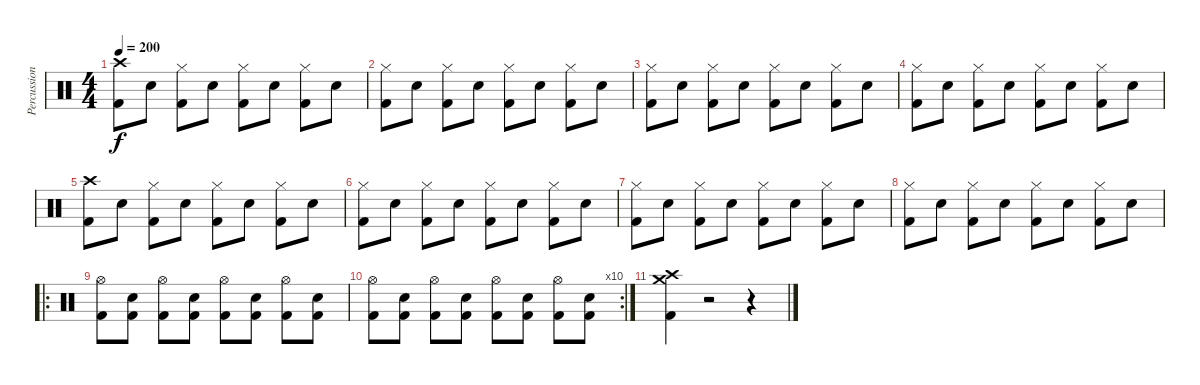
\track ("Percussions" "Percussion") {instrument percussion}
\staff {score}
\articulation defaults
\ts (4 4)
\tempo 200
\clef neutral
\ks c
("Kick (hit) 2" "Crash high (hit)").8{dy f} "Snare (hit) 2".8 ("Kick (hit) 2" "Hi-Hat (closed)").8 "Snare (hit) 2".8 ("Kick (hit) 2" "Hi-Hat (closed)").8 "Snare (hit) 2".8 ("Kick (hit) 2" "Hi-Hat (closed)").8 "Snare (hit) 2".8 |
("Kick (hit) 2" "Hi-Hat (closed)").8 "Snare (hit) 2".8 ("Kick (hit) 2" "Hi-Hat (closed)").8 "Snare (hit) 2".8 ("Kick (hit) 2" "Hi-Hat (closed)").8 "Snare (hit) 2".8 ("Kick (hit) 2" "Hi-Hat (closed)").8 "Snare (hit) 2".8 |
("Kick (hit) 2" "Hi-Hat (closed)").8 "Snare (hit) 2".8 ("Kick (hit) 2" "Hi-Hat (closed)").8 "Snare (hit) 2".8 ("Kick (hit) 2" "Hi-Hat (closed)").8 "Snare (hit) 2".8 ("Kick (hit) 2" "Hi-Hat (closed)").8 "Snare (hit) 2".8 |
("Kick (hit) 2" "Hi-Hat (closed)").8 "Snare (hit) 2".8 ("Kick (hit) 2" "Hi-Hat (closed)").8 "Snare (hit) 2".8 ("Kick (hit) 2" "Hi-Hat (closed)").8 "Snare (hit) 2".8 ("Kick (hit) 2" "Hi-Hat (closed)").8 "Snare (hit) 2".8 |
("Kick (hit) 2" "Crash high (hit)").8 "Snare (hit) 2".8 ("Kick (hit) 2" "Hi-Hat (closed)").8 "Snare (hit) 2".8 ("Kick (hit) 2" "Hi-Hat (closed)").8 "Snare (hit) 2".8 ("Kick (hit) 2" "Hi-Hat (closed)").8 "Snare (hit) 2".8 |
("Kick (hit) 2" "Hi-Hat (closed)").8 "Snare (hit) 2".8 ("Kick (hit) 2" "Hi-Hat (closed)").8 "Snare (hit) 2".8 ("Kick (hit) 2" "Hi-Hat (closed)").8 "Snare (hit) 2".8 ("Kick (hit) 2" "Hi-Hat (closed)").8 "Snare (hit) 2".8 |
("Kick (hit) 2" "Hi-Hat (closed)").8 "Snare (hit) 2".8 ("Kick (hit) 2" "Hi-Hat (closed)").8 "Snare (hit) 2".8 ("Kick (hit) 2" "Hi-Hat (closed)").8 "Snare (hit) 2".8 ("Kick (hit) 2" "Hi-Hat (closed)").8 "Snare (hit) 2".8 |
("Kick (hit) 2" "Hi-Hat (closed)").8 "Snare (hit) 2".8 ("Kick (hit) 2" "Hi-Hat (closed)").8 "Snare (hit) 2".8 ("Kick (hit) 2" "Hi-Hat (closed)").8 "Snare (hit) 2".8 ("Kick (hit) 2" "Hi-Hat (closed)").8 "Snare (hit) 2".8 |
\ro
("Kick (hit) 2" "Hi-Hat (open)").8 ("Kick (hit) 2" "Snare (hit) 2").8 ("Kick (hit) 2" "Hi-Hat (open)").8 ("Kick (hit) 2" "Snare (hit) 2").8 ("Kick (hit) 2" "Hi-Hat (open)").8 ("Kick (hit) 2" "Snare (hit) 2").8 ("Kick (hit) 2" "Hi-Hat (open)").8 ("Kick (hit) 2" "Snare (hit) 2").8 |
\rc 10
("Kick (hit) 2" "Hi-Hat (open)").8 ("Kick (hit) 2" "Snare (hit) 2").8 ("Kick (hit) 2" "Hi-Hat (open)").8 ("Kick (hit) 2" "Snare (hit) 2").8 ("Kick (hit) 2" "Hi-Hat (open)").8 ("Kick (hit) 2" "Snare (hit) 2").8 ("Kick (hit) 2" "Hi-Hat (open)").8 ("Kick (hit) 2" "Snare (hit) 2").8 |
("Kick (hit) 2" "Crash high (hit)" "Crash medium (hit)").4 r.2 r.4
